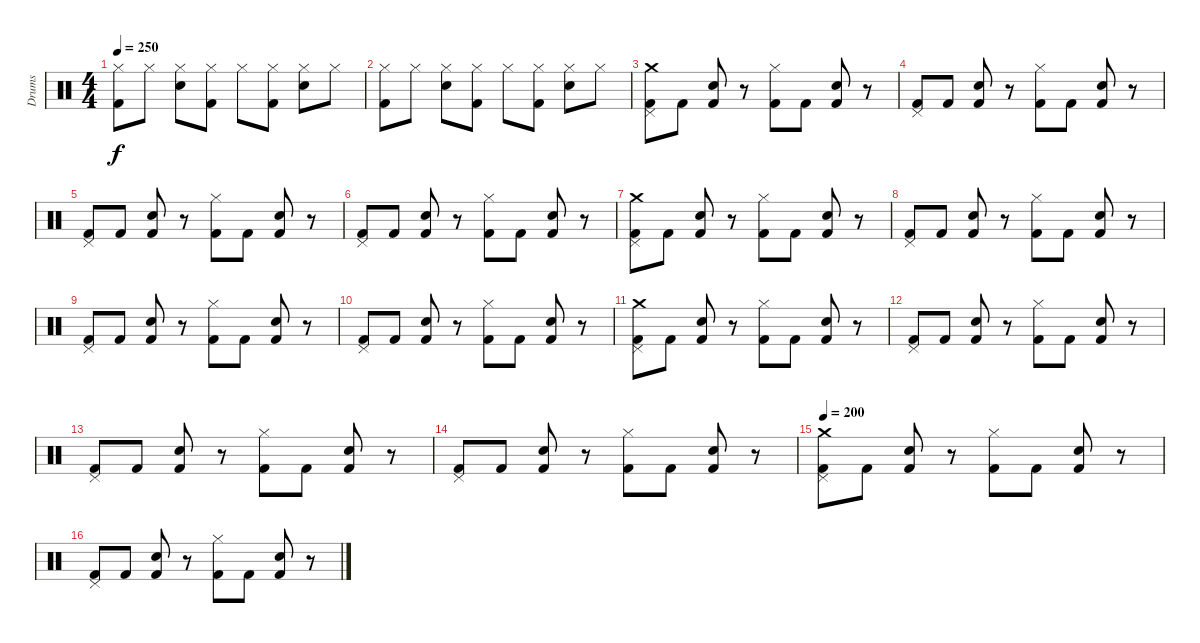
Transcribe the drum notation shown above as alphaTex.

\track ("Drums" "Drums") {instrument percussion}
\staff {score}
\articulation defaults
\ts (4 4)
\tempo 250
\clef neutral
\ks c
("Kick (hit) 2" "Hi-Hat (closed)").8{dy f} "Hi-Hat (closed)".8 ("Snare (hit) 2" "Hi-Hat (closed)").8 ("Kick (hit) 2" "Hi-Hat (closed)").8 "Hi-Hat (closed)".8 ("Kick (hit) 2" "Hi-Hat (closed)").8 ("Snare (hit) 2" "Hi-Hat (closed)").8 "Hi-Hat (closed)".8 |
("Kick (hit) 2" "Hi-Hat (closed)").8 "Hi-Hat (closed)".8 ("Snare (hit) 2" "Hi-Hat (closed)").8 ("Kick (hit) 2" "Hi-Hat (closed)").8 "Hi-Hat (closed)".8 ("Kick (hit) 2" "Hi-Hat (closed)").8 ("Snare (hit) 2" "Hi-Hat (closed)").8 "Hi-Hat (closed)".8 |
("Kick (hit) 2" "Pedal Hi-Hat (hit)" "Crash medium (hit)").8 "Kick (hit) 2".8 ("Kick (hit) 2" "Snare (hit) 2").8 r.8 ("Kick (hit) 2" "Hi-Hat (closed)").8 "Kick (hit) 2".8 ("Kick (hit) 2" "Snare (hit) 2").8 r.8 |
("Kick (hit) 2" "Pedal Hi-Hat (hit)").8 "Kick (hit) 2".8 ("Kick (hit) 2" "Snare (hit) 2").8 r.8 ("Kick (hit) 2" "Hi-Hat (closed)").8 "Kick (hit) 2".8 ("Kick (hit) 2" "Snare (hit) 2").8 r.8 |
("Kick (hit) 2" "Pedal Hi-Hat (hit)").8 "Kick (hit) 2".8 ("Kick (hit) 2" "Snare (hit) 2").8 r.8 ("Kick (hit) 2" "Hi-Hat (closed)").8 "Kick (hit) 2".8 ("Kick (hit) 2" "Snare (hit) 2").8 r.8 |
("Kick (hit) 2" "Pedal Hi-Hat (hit)").8 "Kick (hit) 2".8 ("Kick (hit) 2" "Snare (hit) 2").8 r.8 ("Kick (hit) 2" "Hi-Hat (closed)").8 "Kick (hit) 2".8 ("Kick (hit) 2" "Snare (hit) 2").8 r.8 |
("Kick (hit) 2" "Pedal Hi-Hat (hit)" "Crash medium (hit)").8 "Kick (hit) 2".8 ("Kick (hit) 2" "Snare (hit) 2").8 r.8 ("Kick (hit) 2" "Hi-Hat (closed)").8 "Kick (hit) 2".8 ("Kick (hit) 2" "Snare (hit) 2").8 r.8 |
("Kick (hit) 2" "Pedal Hi-Hat (hit)").8 "Kick (hit) 2".8 ("Kick (hit) 2" "Snare (hit) 2").8 r.8 ("Kick (hit) 2" "Hi-Hat (closed)").8 "Kick (hit) 2".8 ("Kick (hit) 2" "Snare (hit) 2").8 r.8 |
("Kick (hit) 2" "Pedal Hi-Hat (hit)").8 "Kick (hit) 2".8 ("Kick (hit) 2" "Snare (hit) 2").8 r.8 ("Kick (hit) 2" "Hi-Hat (closed)").8 "Kick (hit) 2".8 ("Kick (hit) 2" "Snare (hit) 2").8 r.8 |
("Kick (hit) 2" "Pedal Hi-Hat (hit)").8 "Kick (hit) 2".8 ("Kick (hit) 2" "Snare (hit) 2").8 r.8 ("Kick (hit) 2" "Hi-Hat (closed)").8 "Kick (hit) 2".8 ("Kick (hit) 2" "Snare (hit) 2").8 r.8 |
("Kick (hit) 2" "Pedal Hi-Hat (hit)" "Crash medium (hit)").8 "Kick (hit) 2".8 ("Kick (hit) 2" "Snare (hit) 2").8 r.8 ("Kick (hit) 2" "Hi-Hat (closed)").8 "Kick (hit) 2".8 ("Kick (hit) 2" "Snare (hit) 2").8 r.8 |
("Kick (hit) 2" "Pedal Hi-Hat (hit)").8 "Kick (hit) 2".8 ("Kick (hit) 2" "Snare (hit) 2").8 r.8 ("Kick (hit) 2" "Hi-Hat (closed)").8 "Kick (hit) 2".8 ("Kick (hit) 2" "Snare (hit) 2").8 r.8 |
("Kick (hit) 2" "Pedal Hi-Hat (hit)").8 "Kick (hit) 2".8 ("Kick (hit) 2" "Snare (hit) 2").8 r.8 ("Kick (hit) 2" "Hi-Hat (closed)").8 "Kick (hit) 2".8 ("Kick (hit) 2" "Snare (hit) 2").8 r.8 |
("Kick (hit) 2" "Pedal Hi-Hat (hit)").8 "Kick (hit) 2".8 ("Kick (hit) 2" "Snare (hit) 2").8 r.8 ("Kick (hit) 2" "Hi-Hat (closed)").8 "Kick (hit) 2".8 ("Kick (hit) 2" "Snare (hit) 2").8 r.8 |
\tempo 200
("Kick (hit) 2" "Pedal Hi-Hat (hit)" "Crash medium (hit)").8 "Kick (hit) 2".8 ("Kick (hit) 2" "Snare (hit) 2").8 r.8 ("Kick (hit) 2" "Hi-Hat (closed)").8 "Kick (hit) 2".8 ("Kick (hit) 2" "Snare (hit) 2").8 r.8 |
("Kick (hit) 2" "Pedal Hi-Hat (hit)").8 "Kick (hit) 2".8 ("Kick (hit) 2" "Snare (hit) 2").8 r.8 ("Kick (hit) 2" "Hi-Hat (closed)").8 "Kick (hit) 2".8 ("Kick (hit) 2" "Snare (hit) 2").8 r.8
